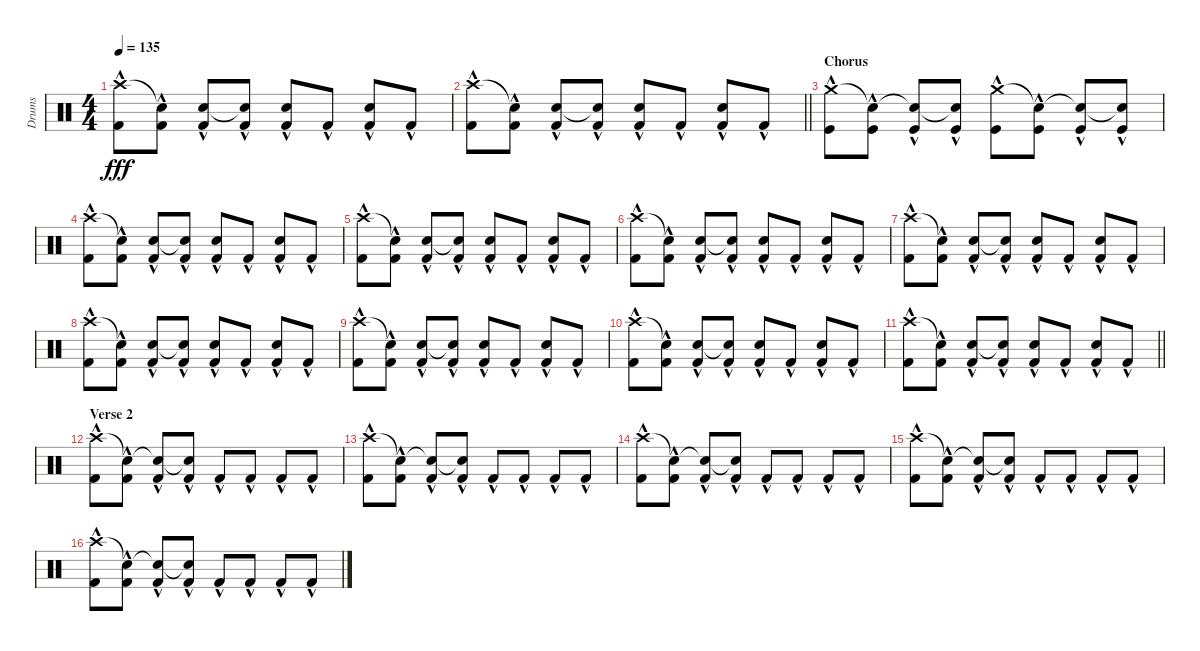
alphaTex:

\track ("Drums" "Drums") {instrument percussion}
\staff {score}
\articulation defaults
\ts (4 4)
\tempo 135
\clef neutral
\ks c
("Crash high (hit)"{hac} "Kick (hit) 2"{hac}).8{dy fff} ("Snare (hit)"{t} "Kick (hit) 2"{hac}).8 ("Snare (hit) 2" "Kick (hit) 2"{hac}).8 ("Snare (hit)"{t} "Kick (hit) 2"{hac}).8 ("Snare (hit) 2" "Kick (hit) 2"{hac}).8 "Kick (hit) 2"{hac}.8 ("Snare (hit) 2" "Kick (hit) 2"{hac}).8 "Kick (hit) 2"{hac}.8 |
\barLineRight lightlight
("Crash high (hit)"{hac} "Kick (hit) 2"{hac}).8 ("Snare (hit)"{t} "Kick (hit) 2"{hac}).8 ("Snare (hit) 2" "Kick (hit) 2"{hac}).8 ("Snare (hit)"{t} "Kick (hit) 2"{hac}).8 ("Snare (hit) 2" "Kick (hit) 2"{hac}).8 "Kick (hit) 2"{hac}.8 ("Snare (hit) 2" "Kick (hit) 2"{hac}).8 "Kick (hit) 2"{hac}.8 |
\section ("" "Chorus ")
("Crash medium (hit)"{hac} "Kick (hit)"{hac}).8 ("Snare (hit)"{t} "Kick (hit)"{hac}).8 ("Snare (hit)"{t} "Kick (hit)"{hac}).8 ("Snare (hit)"{t} "Kick (hit)"{hac}).8 ("Crash medium (hit)"{hac} "Kick (hit)"{hac}).8 ("Snare (hit)"{t} "Kick (hit)"{hac}).8 ("Snare (hit)"{t} "Kick (hit)"{hac}).8 ("Snare (hit)"{t} "Kick (hit)"{hac}).8 |
("Crash high (hit)"{hac} "Kick (hit) 2"{hac}).8 ("Snare (hit)"{t} "Kick (hit) 2"{hac}).8 ("Snare (hit) 2" "Kick (hit) 2"{hac}).8 ("Snare (hit)"{t} "Kick (hit) 2"{hac}).8 ("Snare (hit) 2" "Kick (hit) 2"{hac}).8 "Kick (hit) 2"{hac}.8 ("Snare (hit) 2" "Kick (hit) 2"{hac}).8 "Kick (hit) 2"{hac}.8 |
("Crash high (hit)"{hac} "Kick (hit) 2"{hac}).8 ("Snare (hit)"{t} "Kick (hit) 2"{hac}).8 ("Snare (hit) 2" "Kick (hit) 2"{hac}).8 ("Snare (hit)"{t} "Kick (hit) 2"{hac}).8 ("Snare (hit) 2" "Kick (hit) 2"{hac}).8 "Kick (hit) 2"{hac}.8 ("Snare (hit) 2" "Kick (hit) 2"{hac}).8 "Kick (hit) 2"{hac}.8 |
("Crash high (hit)"{hac} "Kick (hit) 2"{hac}).8 ("Snare (hit)"{t} "Kick (hit) 2"{hac}).8 ("Snare (hit) 2" "Kick (hit) 2"{hac}).8 ("Snare (hit)"{t} "Kick (hit) 2"{hac}).8 ("Snare (hit) 2" "Kick (hit) 2"{hac}).8 "Kick (hit) 2"{hac}.8 ("Snare (hit) 2" "Kick (hit) 2"{hac}).8 "Kick (hit) 2"{hac}.8 |
("Crash high (hit)"{hac} "Kick (hit) 2"{hac}).8 ("Snare (hit)"{t} "Kick (hit) 2"{hac}).8 ("Snare (hit) 2" "Kick (hit) 2"{hac}).8 ("Snare (hit)"{t} "Kick (hit) 2"{hac}).8 ("Snare (hit) 2" "Kick (hit) 2"{hac}).8 "Kick (hit) 2"{hac}.8 ("Snare (hit) 2" "Kick (hit) 2"{hac}).8 "Kick (hit) 2"{hac}.8 |
("Crash high (hit)"{hac} "Kick (hit) 2"{hac}).8 ("Snare (hit)"{t} "Kick (hit) 2"{hac}).8 ("Snare (hit) 2" "Kick (hit) 2"{hac}).8 ("Snare (hit)"{t} "Kick (hit) 2"{hac}).8 ("Snare (hit) 2" "Kick (hit) 2"{hac}).8 "Kick (hit) 2"{hac}.8 ("Snare (hit) 2" "Kick (hit) 2"{hac}).8 "Kick (hit) 2"{hac}.8 |
("Crash high (hit)"{hac} "Kick (hit) 2"{hac}).8 ("Snare (hit)"{t} "Kick (hit) 2"{hac}).8 ("Snare (hit) 2" "Kick (hit) 2"{hac}).8 ("Snare (hit)"{t} "Kick (hit) 2"{hac}).8 ("Snare (hit) 2" "Kick (hit) 2"{hac}).8 "Kick (hit) 2"{hac}.8 ("Snare (hit) 2" "Kick (hit) 2"{hac}).8 "Kick (hit) 2"{hac}.8 |
("Crash high (hit)"{hac} "Kick (hit) 2"{hac}).8 ("Snare (hit)"{t} "Kick (hit) 2"{hac}).8 ("Snare (hit) 2" "Kick (hit) 2"{hac}).8 ("Snare (hit)"{t} "Kick (hit) 2"{hac}).8 ("Snare (hit) 2" "Kick (hit) 2"{hac}).8 "Kick (hit) 2"{hac}.8 ("Snare (hit) 2" "Kick (hit) 2"{hac}).8 "Kick (hit) 2"{hac}.8 |
\barLineRight lightlight
("Crash high (hit)"{hac} "Kick (hit) 2"{hac}).8 ("Snare (hit)"{t} "Kick (hit) 2"{hac}).8 ("Snare (hit) 2" "Kick (hit) 2"{hac}).8 ("Snare (hit)"{t} "Kick (hit) 2"{hac}).8 ("Snare (hit) 2" "Kick (hit) 2"{hac}).8 "Kick (hit) 2"{hac}.8 ("Snare (hit) 2" "Kick (hit) 2"{hac}).8 "Kick (hit) 2"{hac}.8 |
\section ("" "Verse 2")
("Crash high (hit)"{hac} "Kick (hit) 2"{hac}).8 ("Snare (hit)"{t} "Kick (hit) 2"{hac}).8 ("Snare (hit)"{t} "Kick (hit) 2"{hac}).8 ("Snare (hit)"{t} "Kick (hit) 2"{hac}).8 "Kick (hit) 2"{hac}.8 "Kick (hit) 2"{hac}.8 "Kick (hit) 2"{hac}.8 "Kick (hit) 2"{hac}.8 |
("Crash high (hit)"{hac} "Kick (hit) 2"{hac}).8 ("Snare (hit)"{t} "Kick (hit) 2"{hac}).8 ("Snare (hit)"{t} "Kick (hit) 2"{hac}).8 ("Snare (hit)"{t} "Kick (hit) 2"{hac}).8 "Kick (hit) 2"{hac}.8 "Kick (hit) 2"{hac}.8 "Kick (hit) 2"{hac}.8 "Kick (hit) 2"{hac}.8 |
("Crash high (hit)"{hac} "Kick (hit) 2"{hac}).8 ("Snare (hit)"{t} "Kick (hit) 2"{hac}).8 ("Snare (hit)"{t} "Kick (hit) 2"{hac}).8 ("Snare (hit)"{t} "Kick (hit) 2"{hac}).8 "Kick (hit) 2"{hac}.8 "Kick (hit) 2"{hac}.8 "Kick (hit) 2"{hac}.8 "Kick (hit) 2"{hac}.8 |
("Crash high (hit)"{hac} "Kick (hit) 2"{hac}).8 ("Snare (hit)"{t} "Kick (hit) 2"{hac}).8 ("Snare (hit)"{t} "Kick (hit) 2"{hac}).8 ("Snare (hit)"{t} "Kick (hit) 2"{hac}).8 "Kick (hit) 2"{hac}.8 "Kick (hit) 2"{hac}.8 "Kick (hit) 2"{hac}.8 "Kick (hit) 2"{hac}.8 |
("Crash high (hit)"{hac} "Kick (hit) 2"{hac}).8 ("Snare (hit)"{t} "Kick (hit) 2"{hac}).8 ("Snare (hit)"{t} "Kick (hit) 2"{hac}).8 ("Snare (hit)"{t} "Kick (hit) 2"{hac}).8 "Kick (hit) 2"{hac}.8 "Kick (hit) 2"{hac}.8 "Kick (hit) 2"{hac}.8 "Kick (hit) 2"{hac}.8
